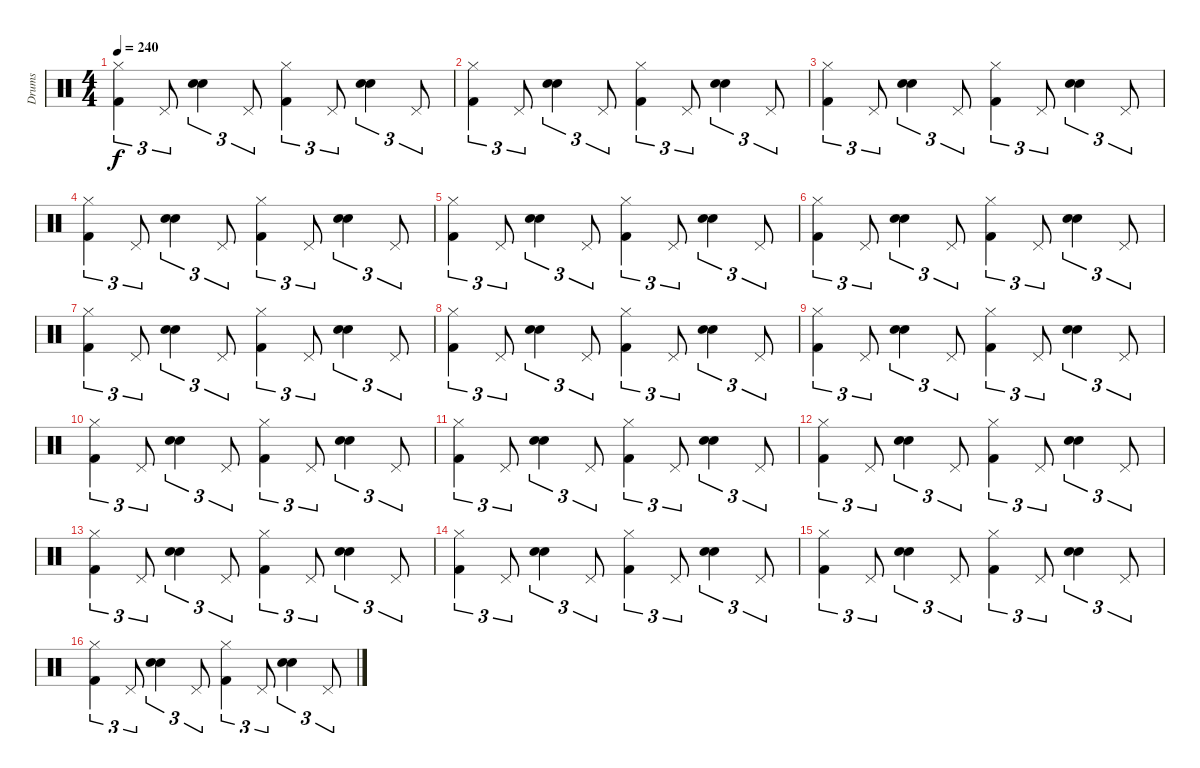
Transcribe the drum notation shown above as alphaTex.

\track ("Drums" "Drums") {instrument percussion}
\staff {score}
\articulation defaults
\ts (4 4)
\tempo 240
\clef neutral
\ks c
("Hi-Hat (closed)" "Kick (hit) 2").4{tu (3 2) dy f} "Pedal Hi-Hat (hit)".8{tu (3 2)} ("Hand Clap (hit)" "Snare (hit) 2").4{tu (3 2)} "Pedal Hi-Hat (hit)".8{tu (3 2)} ("Hi-Hat (closed)" "Kick (hit) 2").4{tu (3 2)} "Pedal Hi-Hat (hit)".8{tu (3 2)} ("Hand Clap (hit)" "Snare (hit) 2").4{tu (3 2)} "Pedal Hi-Hat (hit)".8{tu (3 2)} |
("Hi-Hat (closed)" "Kick (hit) 2").4{tu (3 2)} "Pedal Hi-Hat (hit)".8{tu (3 2)} ("Hand Clap (hit)" "Snare (hit) 2").4{tu (3 2)} "Pedal Hi-Hat (hit)".8{tu (3 2)} ("Hi-Hat (closed)" "Kick (hit) 2").4{tu (3 2)} "Pedal Hi-Hat (hit)".8{tu (3 2)} ("Hand Clap (hit)" "Snare (hit) 2").4{tu (3 2)} "Pedal Hi-Hat (hit)".8{tu (3 2)} |
("Hi-Hat (closed)" "Kick (hit) 2").4{tu (3 2)} "Pedal Hi-Hat (hit)".8{tu (3 2)} ("Hand Clap (hit)" "Snare (hit) 2").4{tu (3 2)} "Pedal Hi-Hat (hit)".8{tu (3 2)} ("Hi-Hat (closed)" "Kick (hit) 2").4{tu (3 2)} "Pedal Hi-Hat (hit)".8{tu (3 2)} ("Hand Clap (hit)" "Snare (hit) 2").4{tu (3 2)} "Pedal Hi-Hat (hit)".8{tu (3 2)} |
("Hi-Hat (closed)" "Kick (hit) 2").4{tu (3 2)} "Pedal Hi-Hat (hit)".8{tu (3 2)} ("Hand Clap (hit)" "Snare (hit) 2").4{tu (3 2)} "Pedal Hi-Hat (hit)".8{tu (3 2)} ("Hi-Hat (closed)" "Kick (hit) 2").4{tu (3 2)} "Pedal Hi-Hat (hit)".8{tu (3 2)} ("Hand Clap (hit)" "Snare (hit) 2").4{tu (3 2)} "Pedal Hi-Hat (hit)".8{tu (3 2)} |
("Hi-Hat (closed)" "Kick (hit) 2").4{tu (3 2)} "Pedal Hi-Hat (hit)".8{tu (3 2)} ("Hand Clap (hit)" "Snare (hit) 2").4{tu (3 2)} "Pedal Hi-Hat (hit)".8{tu (3 2)} ("Hi-Hat (closed)" "Kick (hit) 2").4{tu (3 2)} "Pedal Hi-Hat (hit)".8{tu (3 2)} ("Hand Clap (hit)" "Snare (hit) 2").4{tu (3 2)} "Pedal Hi-Hat (hit)".8{tu (3 2)} |
("Hi-Hat (closed)" "Kick (hit) 2").4{tu (3 2)} "Pedal Hi-Hat (hit)".8{tu (3 2)} ("Hand Clap (hit)" "Snare (hit) 2").4{tu (3 2)} "Pedal Hi-Hat (hit)".8{tu (3 2)} ("Hi-Hat (closed)" "Kick (hit) 2").4{tu (3 2)} "Pedal Hi-Hat (hit)".8{tu (3 2)} ("Hand Clap (hit)" "Snare (hit) 2").4{tu (3 2)} "Pedal Hi-Hat (hit)".8{tu (3 2)} |
("Hi-Hat (closed)" "Kick (hit) 2").4{tu (3 2)} "Pedal Hi-Hat (hit)".8{tu (3 2)} ("Hand Clap (hit)" "Snare (hit) 2").4{tu (3 2)} "Pedal Hi-Hat (hit)".8{tu (3 2)} ("Hi-Hat (closed)" "Kick (hit) 2").4{tu (3 2)} "Pedal Hi-Hat (hit)".8{tu (3 2)} ("Hand Clap (hit)" "Snare (hit) 2").4{tu (3 2)} "Pedal Hi-Hat (hit)".8{tu (3 2)} |
("Hi-Hat (closed)" "Kick (hit) 2").4{tu (3 2)} "Pedal Hi-Hat (hit)".8{tu (3 2)} ("Hand Clap (hit)" "Snare (hit) 2").4{tu (3 2)} "Pedal Hi-Hat (hit)".8{tu (3 2)} ("Hi-Hat (closed)" "Kick (hit) 2").4{tu (3 2)} "Pedal Hi-Hat (hit)".8{tu (3 2)} ("Hand Clap (hit)" "Snare (hit) 2").4{tu (3 2)} "Pedal Hi-Hat (hit)".8{tu (3 2)} |
("Hi-Hat (closed)" "Kick (hit) 2").4{tu (3 2)} "Pedal Hi-Hat (hit)".8{tu (3 2)} ("Hand Clap (hit)" "Snare (hit) 2").4{tu (3 2)} "Pedal Hi-Hat (hit)".8{tu (3 2)} ("Hi-Hat (closed)" "Kick (hit) 2").4{tu (3 2)} "Pedal Hi-Hat (hit)".8{tu (3 2)} ("Hand Clap (hit)" "Snare (hit) 2").4{tu (3 2)} "Pedal Hi-Hat (hit)".8{tu (3 2)} |
("Hi-Hat (closed)" "Kick (hit) 2").4{tu (3 2)} "Pedal Hi-Hat (hit)".8{tu (3 2)} ("Hand Clap (hit)" "Snare (hit) 2").4{tu (3 2)} "Pedal Hi-Hat (hit)".8{tu (3 2)} ("Hi-Hat (closed)" "Kick (hit) 2").4{tu (3 2)} "Pedal Hi-Hat (hit)".8{tu (3 2)} ("Hand Clap (hit)" "Snare (hit) 2").4{tu (3 2)} "Pedal Hi-Hat (hit)".8{tu (3 2)} |
("Hi-Hat (closed)" "Kick (hit) 2").4{tu (3 2)} "Pedal Hi-Hat (hit)".8{tu (3 2)} ("Hand Clap (hit)" "Snare (hit) 2").4{tu (3 2)} "Pedal Hi-Hat (hit)".8{tu (3 2)} ("Hi-Hat (closed)" "Kick (hit) 2").4{tu (3 2)} "Pedal Hi-Hat (hit)".8{tu (3 2)} ("Hand Clap (hit)" "Snare (hit) 2").4{tu (3 2)} "Pedal Hi-Hat (hit)".8{tu (3 2)} |
("Hi-Hat (closed)" "Kick (hit) 2").4{tu (3 2)} "Pedal Hi-Hat (hit)".8{tu (3 2)} ("Hand Clap (hit)" "Snare (hit) 2").4{tu (3 2)} "Pedal Hi-Hat (hit)".8{tu (3 2)} ("Hi-Hat (closed)" "Kick (hit) 2").4{tu (3 2)} "Pedal Hi-Hat (hit)".8{tu (3 2)} ("Hand Clap (hit)" "Snare (hit) 2").4{tu (3 2)} "Pedal Hi-Hat (hit)".8{tu (3 2)} |
("Hi-Hat (closed)" "Kick (hit) 2").4{tu (3 2)} "Pedal Hi-Hat (hit)".8{tu (3 2)} ("Hand Clap (hit)" "Snare (hit) 2").4{tu (3 2)} "Pedal Hi-Hat (hit)".8{tu (3 2)} ("Hi-Hat (closed)" "Kick (hit) 2").4{tu (3 2)} "Pedal Hi-Hat (hit)".8{tu (3 2)} ("Hand Clap (hit)" "Snare (hit) 2").4{tu (3 2)} "Pedal Hi-Hat (hit)".8{tu (3 2)} |
("Hi-Hat (closed)" "Kick (hit) 2").4{tu (3 2)} "Pedal Hi-Hat (hit)".8{tu (3 2)} ("Hand Clap (hit)" "Snare (hit) 2").4{tu (3 2)} "Pedal Hi-Hat (hit)".8{tu (3 2)} ("Hi-Hat (closed)" "Kick (hit) 2").4{tu (3 2)} "Pedal Hi-Hat (hit)".8{tu (3 2)} ("Hand Clap (hit)" "Snare (hit) 2").4{tu (3 2)} "Pedal Hi-Hat (hit)".8{tu (3 2)} |
("Hi-Hat (closed)" "Kick (hit) 2").4{tu (3 2)} "Pedal Hi-Hat (hit)".8{tu (3 2)} ("Hand Clap (hit)" "Snare (hit) 2").4{tu (3 2)} "Pedal Hi-Hat (hit)".8{tu (3 2)} ("Hi-Hat (closed)" "Kick (hit) 2").4{tu (3 2)} "Pedal Hi-Hat (hit)".8{tu (3 2)} ("Hand Clap (hit)" "Snare (hit) 2").4{tu (3 2)} "Pedal Hi-Hat (hit)".8{tu (3 2)} |
("Hi-Hat (closed)" "Kick (hit) 2").4{tu (3 2)} "Pedal Hi-Hat (hit)".8{tu (3 2)} ("Hand Clap (hit)" "Snare (hit) 2").4{tu (3 2)} "Pedal Hi-Hat (hit)".8{tu (3 2)} ("Hi-Hat (closed)" "Kick (hit) 2").4{tu (3 2)} "Pedal Hi-Hat (hit)".8{tu (3 2)} ("Hand Clap (hit)" "Snare (hit) 2").4{tu (3 2)} "Pedal Hi-Hat (hit)".8{tu (3 2)}
